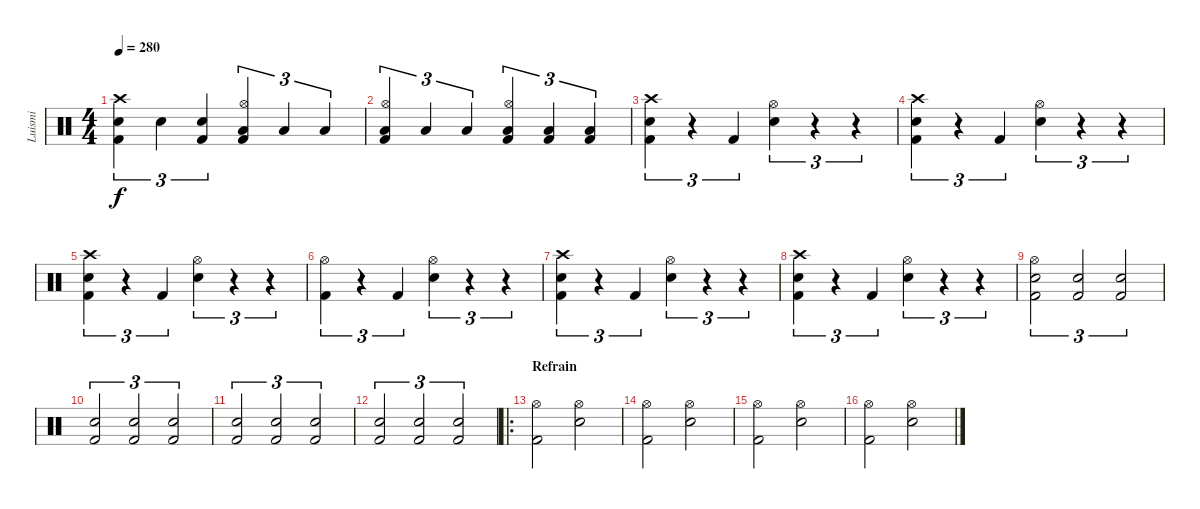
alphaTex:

\track ("Luismi" "Luismi") {instrument percussion}
\staff {score}
\articulation defaults
\ts (4 4)
\tempo 280
\clef neutral
\ks c
("Crash high (hit)" "Snare (hit) 2" "Kick (hit) 2").4{tu (3 2) dy f} "Snare (hit) 2".4{tu (3 2)} ("Snare (hit) 2" "Kick (hit) 2").4{tu (3 2)} ("Hi-Hat (open)" "Low Tom (hit)" "Kick (hit) 2").4{tu (3 2)} "Low Tom (hit)".4{tu (3 2)} "Low Tom (hit)".4{tu (3 2)} |
("Hi-Hat (open)" "Low Floor Tom (hit)" "Kick (hit) 2").4{tu (3 2)} "Low Floor Tom (hit)".4{tu (3 2)} "Low Floor Tom (hit)".4{tu (3 2)} ("Hi-Hat (open)" "Low Floor Tom (hit)" "Kick (hit) 2").4{tu (3 2)} ("Low Floor Tom (hit)" "Kick (hit) 2").4{tu (3 2)} ("Low Floor Tom (hit)" "Kick (hit) 2").4{tu (3 2)} |
("Crash high (hit)" "Snare (hit) 2" "Kick (hit) 2").4{tu (3 2)} r.4{tu (3 2)} "Kick (hit) 2".4{tu (3 2)} ("Hi-Hat (open)" "Snare (hit) 2").4{tu (3 2)} r.4{tu (3 2)} r.4{tu (3 2)} |
("Crash high (hit)" "Snare (hit) 2" "Kick (hit) 2").4{tu (3 2)} r.4{tu (3 2)} "Kick (hit) 2".4{tu (3 2)} ("Hi-Hat (open)" "Snare (hit) 2").4{tu (3 2)} r.4{tu (3 2)} r.4{tu (3 2)} |
("Crash high (hit)" "Snare (hit) 2" "Kick (hit) 2").4{tu (3 2)} r.4{tu (3 2)} "Kick (hit) 2".4{tu (3 2)} ("Hi-Hat (open)" "Snare (hit) 2").4{tu (3 2)} r.4{tu (3 2)} r.4{tu (3 2)} |
("Hi-Hat (open)" "Kick (hit) 2").4{tu (3 2)} r.4{tu (3 2)} "Kick (hit) 2".4{tu (3 2)} ("Hi-Hat (open)" "Snare (hit) 2").4{tu (3 2)} r.4{tu (3 2)} r.4{tu (3 2)} |
("Crash high (hit)" "Snare (hit) 2" "Kick (hit) 2").4{tu (3 2)} r.4{tu (3 2)} "Kick (hit) 2".4{tu (3 2)} ("Hi-Hat (open)" "Snare (hit) 2").4{tu (3 2)} r.4{tu (3 2)} r.4{tu (3 2)} |
("Crash high (hit)" "Snare (hit) 2" "Kick (hit) 2").4{tu (3 2)} r.4{tu (3 2)} "Kick (hit) 2".4{tu (3 2)} ("Hi-Hat (open)" "Snare (hit) 2").4{tu (3 2)} r.4{tu (3 2)} r.4{tu (3 2)} |
("Hi-Hat (open)" "Snare (hit) 2" "Kick (hit) 2").2{tu (3 2)} ("Snare (hit) 2" "Kick (hit) 2").2{tu (3 2)} ("Snare (hit) 2" "Kick (hit) 2").2{tu (3 2)} |
("Snare (hit) 2" "Kick (hit) 2").2{tu (3 2)} ("Snare (hit) 2" "Kick (hit) 2").2{tu (3 2)} ("Snare (hit) 2" "Kick (hit) 2").2{tu (3 2)} |
("Snare (hit) 2" "Kick (hit) 2").2{tu (3 2)} ("Snare (hit) 2" "Kick (hit) 2").2{tu (3 2)} ("Snare (hit) 2" "Kick (hit) 2").2{tu (3 2)} |
("Snare (hit) 2" "Kick (hit) 2").2{tu (3 2)} ("Snare (hit) 2" "Kick (hit) 2").2{tu (3 2)} ("Snare (hit) 2" "Kick (hit) 2").2{tu (3 2)} |
\ro
\section ("" "Refrain")
("Hi-Hat (open)" "Kick (hit) 2").2 ("Hi-Hat (open)" "Snare (hit) 2").2 |
("Hi-Hat (open)" "Kick (hit) 2").2 ("Hi-Hat (open)" "Snare (hit) 2").2 |
("Hi-Hat (open)" "Kick (hit) 2").2 ("Hi-Hat (open)" "Snare (hit) 2").2 |
("Hi-Hat (open)" "Kick (hit) 2").2 ("Hi-Hat (open)" "Snare (hit) 2").2
